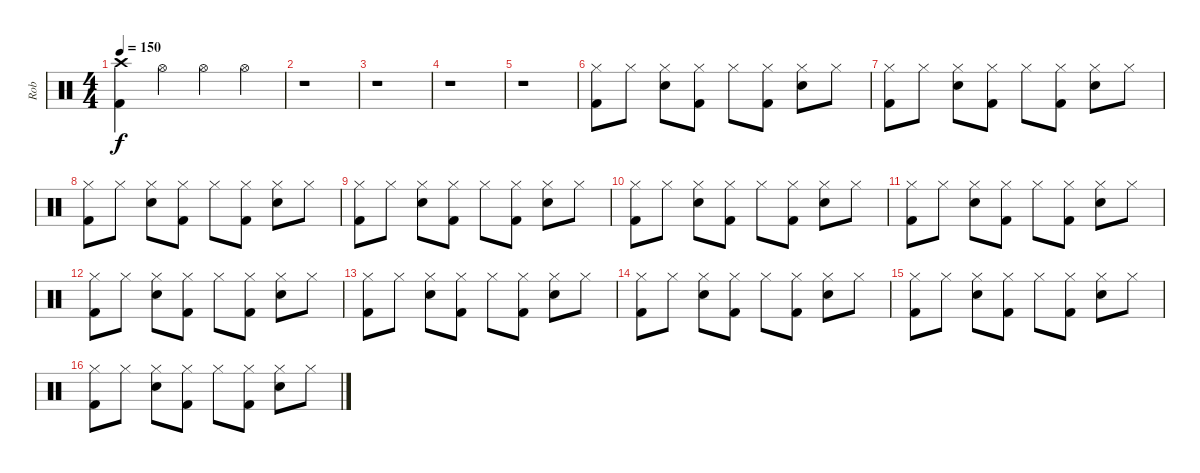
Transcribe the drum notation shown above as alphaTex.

\track ("Rob" "Rob") {instrument percussion}
\staff {score}
\articulation defaults
\ts (4 4)
\tempo 150
\clef neutral
\ks c
("Crash high (hit)" "Kick (hit) 2").4{dy f} "Hi-Hat (open)".4 "Hi-Hat (open)".4 "Hi-Hat (open)".4 |
r.1 |
r.1 |
r.1 |
r.1 |
("Hi-Hat (closed)" "Kick (hit) 2").8 "Hi-Hat (closed)".8 ("Hi-Hat (closed)" "Electric Snare (hit)").8 ("Hi-Hat (closed)" "Kick (hit) 2").8 "Hi-Hat (closed)".8 ("Hi-Hat (closed)" "Kick (hit) 2").8 ("Hi-Hat (closed)" "Electric Snare (hit)").8 "Hi-Hat (closed)".8 |
("Hi-Hat (closed)" "Kick (hit) 2").8 "Hi-Hat (closed)".8 ("Hi-Hat (closed)" "Electric Snare (hit)").8 ("Hi-Hat (closed)" "Kick (hit) 2").8 "Hi-Hat (closed)".8 ("Hi-Hat (closed)" "Kick (hit) 2").8 ("Hi-Hat (closed)" "Electric Snare (hit)").8 "Hi-Hat (closed)".8 |
("Hi-Hat (closed)" "Kick (hit) 2").8 "Hi-Hat (closed)".8 ("Hi-Hat (closed)" "Electric Snare (hit)").8 ("Hi-Hat (closed)" "Kick (hit) 2").8 "Hi-Hat (closed)".8 ("Hi-Hat (closed)" "Kick (hit) 2").8 ("Hi-Hat (closed)" "Electric Snare (hit)").8 "Hi-Hat (closed)".8 |
("Hi-Hat (closed)" "Kick (hit) 2").8 "Hi-Hat (closed)".8 ("Hi-Hat (closed)" "Electric Snare (hit)").8 ("Hi-Hat (closed)" "Kick (hit) 2").8 "Hi-Hat (closed)".8 ("Hi-Hat (closed)" "Kick (hit) 2").8 ("Hi-Hat (closed)" "Electric Snare (hit)").8 "Hi-Hat (closed)".8 |
("Hi-Hat (closed)" "Kick (hit) 2").8 "Hi-Hat (closed)".8 ("Hi-Hat (closed)" "Electric Snare (hit)").8 ("Hi-Hat (closed)" "Kick (hit) 2").8 "Hi-Hat (closed)".8 ("Hi-Hat (closed)" "Kick (hit) 2").8 ("Hi-Hat (closed)" "Electric Snare (hit)").8 "Hi-Hat (closed)".8 |
("Hi-Hat (closed)" "Kick (hit) 2").8 "Hi-Hat (closed)".8 ("Hi-Hat (closed)" "Electric Snare (hit)").8 ("Hi-Hat (closed)" "Kick (hit) 2").8 "Hi-Hat (closed)".8 ("Hi-Hat (closed)" "Kick (hit) 2").8 ("Hi-Hat (closed)" "Electric Snare (hit)").8 "Hi-Hat (closed)".8 |
("Hi-Hat (closed)" "Kick (hit) 2").8 "Hi-Hat (closed)".8 ("Hi-Hat (closed)" "Electric Snare (hit)").8 ("Hi-Hat (closed)" "Kick (hit) 2").8 "Hi-Hat (closed)".8 ("Hi-Hat (closed)" "Kick (hit) 2").8 ("Hi-Hat (closed)" "Electric Snare (hit)").8 "Hi-Hat (closed)".8 |
("Hi-Hat (closed)" "Kick (hit) 2").8 "Hi-Hat (closed)".8 ("Hi-Hat (closed)" "Electric Snare (hit)").8 ("Hi-Hat (closed)" "Kick (hit) 2").8 "Hi-Hat (closed)".8 ("Hi-Hat (closed)" "Kick (hit) 2").8 ("Hi-Hat (closed)" "Electric Snare (hit)").8 "Hi-Hat (closed)".8 |
("Hi-Hat (closed)" "Kick (hit) 2").8 "Hi-Hat (closed)".8 ("Hi-Hat (closed)" "Electric Snare (hit)").8 ("Hi-Hat (closed)" "Kick (hit) 2").8 "Hi-Hat (closed)".8 ("Hi-Hat (closed)" "Kick (hit) 2").8 ("Hi-Hat (closed)" "Electric Snare (hit)").8 "Hi-Hat (closed)".8 |
("Hi-Hat (closed)" "Kick (hit) 2").8 "Hi-Hat (closed)".8 ("Hi-Hat (closed)" "Electric Snare (hit)").8 ("Hi-Hat (closed)" "Kick (hit) 2").8 "Hi-Hat (closed)".8 ("Hi-Hat (closed)" "Kick (hit) 2").8 ("Hi-Hat (closed)" "Electric Snare (hit)").8 "Hi-Hat (closed)".8 |
("Hi-Hat (closed)" "Kick (hit) 2").8 "Hi-Hat (closed)".8 ("Hi-Hat (closed)" "Electric Snare (hit)").8 ("Hi-Hat (closed)" "Kick (hit) 2").8 "Hi-Hat (closed)".8 ("Hi-Hat (closed)" "Kick (hit) 2").8 ("Hi-Hat (closed)" "Electric Snare (hit)").8 "Hi-Hat (closed)".8
